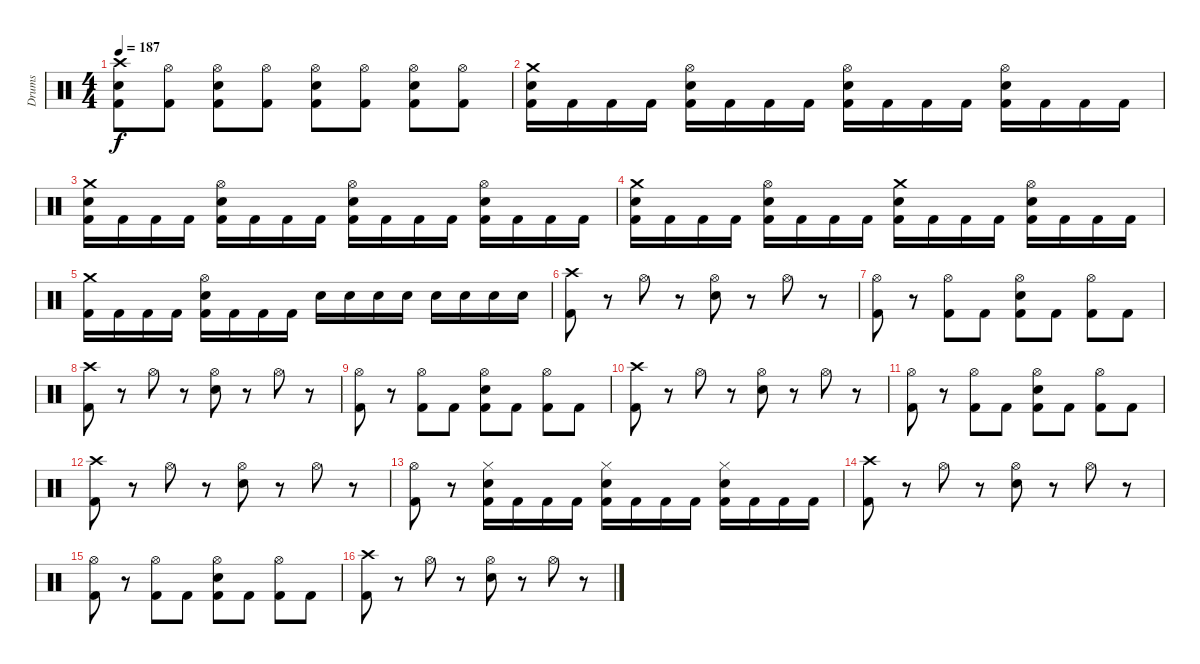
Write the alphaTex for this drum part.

\track ("Drums" "Drums") {instrument percussion}
\staff {score}
\articulation defaults
\ts (4 4)
\tempo 187
\clef neutral
\ks c
("Kick (hit) 2" "Electric Snare (hit)" "Crash high (hit)").8{dy f} ("Kick (hit) 2" "Hi-Hat (open)").8 ("Kick (hit) 2" "Electric Snare (hit)" "Hi-Hat (open)").8 ("Kick (hit) 2" "Hi-Hat (open)").8 ("Kick (hit) 2" "Electric Snare (hit)" "Hi-Hat (open)").8 ("Kick (hit) 2" "Hi-Hat (open)").8 ("Kick (hit) 2" "Electric Snare (hit)" "Hi-Hat (open)").8 ("Kick (hit) 2" "Hi-Hat (open)").8 |
("Kick (hit) 2" "Electric Snare (hit)" "Crash medium (hit)").16 "Kick (hit) 2".16 "Kick (hit) 2".16 "Kick (hit) 2".16 ("Kick (hit) 2" "Electric Snare (hit)" "Hi-Hat (open)").16 "Kick (hit) 2".16 "Kick (hit) 2".16 "Kick (hit) 2".16 ("Kick (hit) 2" "Electric Snare (hit)" "Hi-Hat (open)").16 "Kick (hit) 2".16 "Kick (hit) 2".16 "Kick (hit) 2".16 ("Kick (hit) 2" "Electric Snare (hit)" "Hi-Hat (open)").16 "Kick (hit) 2".16 "Kick (hit) 2".16 "Kick (hit) 2".16 |
("Kick (hit) 2" "Electric Snare (hit)" "Crash medium (hit)").16 "Kick (hit) 2".16 "Kick (hit) 2".16 "Kick (hit) 2".16 ("Kick (hit) 2" "Electric Snare (hit)" "Hi-Hat (open)").16 "Kick (hit) 2".16 "Kick (hit) 2".16 "Kick (hit) 2".16 ("Kick (hit) 2" "Electric Snare (hit)" "Hi-Hat (open)").16 "Kick (hit) 2".16 "Kick (hit) 2".16 "Kick (hit) 2".16 ("Kick (hit) 2" "Electric Snare (hit)" "Hi-Hat (open)").16 "Kick (hit) 2".16 "Kick (hit) 2".16 "Kick (hit) 2".16 |
("Kick (hit) 2" "Electric Snare (hit)" "Crash medium (hit)").16 "Kick (hit) 2".16 "Kick (hit) 2".16 "Kick (hit) 2".16 ("Kick (hit) 2" "Electric Snare (hit)" "Hi-Hat (open)").16 "Kick (hit) 2".16 "Kick (hit) 2".16 "Kick (hit) 2".16 ("Kick (hit) 2" "Electric Snare (hit)" "Crash medium (hit)").16 "Kick (hit) 2".16 "Kick (hit) 2".16 "Kick (hit) 2".16 ("Kick (hit) 2" "Electric Snare (hit)" "Hi-Hat (open)").16 "Kick (hit) 2".16 "Kick (hit) 2".16 "Kick (hit) 2".16 |
("Kick (hit) 2" "Crash medium (hit)").16 "Kick (hit) 2".16 "Kick (hit) 2".16 "Kick (hit) 2".16 ("Kick (hit) 2" "Electric Snare (hit)" "Hi-Hat (open)").16 "Kick (hit) 2".16 "Kick (hit) 2".16 "Kick (hit) 2".16 "Electric Snare (hit)".16 "Electric Snare (hit)".16 "Electric Snare (hit)".16 "Electric Snare (hit)".16 "Electric Snare (hit)".16 "Electric Snare (hit)".16 "Electric Snare (hit)".16 "Electric Snare (hit)".16 |
("Crash high (hit)" "Kick (hit) 2").8 r.8 "Hi-Hat (open)".8 r.8 ("Hi-Hat (open)" "Electric Snare (hit)").8 r.8 "Hi-Hat (open)".8 r.8 |
("Hi-Hat (open)" "Kick (hit) 2").8 r.8 ("Hi-Hat (open)" "Kick (hit) 2").8 "Kick (hit) 2".8 ("Hi-Hat (open)" "Electric Snare (hit)" "Kick (hit) 2").8 "Kick (hit) 2".8 ("Hi-Hat (open)" "Kick (hit) 2").8 "Kick (hit) 2".8 |
("Crash high (hit)" "Kick (hit) 2").8 r.8 "Hi-Hat (open)".8 r.8 ("Hi-Hat (open)" "Electric Snare (hit)").8 r.8 "Hi-Hat (open)".8 r.8 |
("Hi-Hat (open)" "Kick (hit) 2").8 r.8 ("Hi-Hat (open)" "Kick (hit) 2").8 "Kick (hit) 2".8 ("Hi-Hat (open)" "Electric Snare (hit)" "Kick (hit) 2").8 "Kick (hit) 2".8 ("Hi-Hat (open)" "Kick (hit) 2").8 "Kick (hit) 2".8 |
("Crash high (hit)" "Kick (hit) 2").8 r.8 "Hi-Hat (open)".8 r.8 ("Hi-Hat (open)" "Electric Snare (hit)").8 r.8 "Hi-Hat (open)".8 r.8 |
("Hi-Hat (open)" "Kick (hit) 2").8 r.8 ("Hi-Hat (open)" "Kick (hit) 2").8 "Kick (hit) 2".8 ("Hi-Hat (open)" "Electric Snare (hit)" "Kick (hit) 2").8 "Kick (hit) 2".8 ("Hi-Hat (open)" "Kick (hit) 2").8 "Kick (hit) 2".8 |
("Crash high (hit)" "Kick (hit) 2").8 r.8 "Hi-Hat (open)".8 r.8 ("Hi-Hat (open)" "Electric Snare (hit)").8 r.8 "Hi-Hat (open)".8 r.8 |
("Hi-Hat (open)" "Kick (hit) 2").8 r.8 ("Hi-Hat (closed)" "Electric Snare (hit)" "Kick (hit) 2").16 "Kick (hit) 2".16 "Kick (hit) 2".16 "Kick (hit) 2".16 ("Hi-Hat (closed)" "Electric Snare (hit)" "Kick (hit) 2").16 "Kick (hit) 2".16 "Kick (hit) 2".16 "Kick (hit) 2".16 ("Hi-Hat (closed)" "Electric Snare (hit)" "Kick (hit) 2").16 "Kick (hit) 2".16 "Kick (hit) 2".16 "Kick (hit) 2".16 |
("Crash high (hit)" "Kick (hit) 2").8 r.8 "Hi-Hat (open)".8 r.8 ("Hi-Hat (open)" "Electric Snare (hit)").8 r.8 "Hi-Hat (open)".8 r.8 |
("Hi-Hat (open)" "Kick (hit) 2").8 r.8 ("Hi-Hat (open)" "Kick (hit) 2").8 "Kick (hit) 2".8 ("Hi-Hat (open)" "Electric Snare (hit)" "Kick (hit) 2").8 "Kick (hit) 2".8 ("Hi-Hat (open)" "Kick (hit) 2").8 "Kick (hit) 2".8 |
("Crash high (hit)" "Kick (hit) 2").8 r.8 "Hi-Hat (open)".8 r.8 ("Hi-Hat (open)" "Electric Snare (hit)").8 r.8 "Hi-Hat (open)".8 r.8
